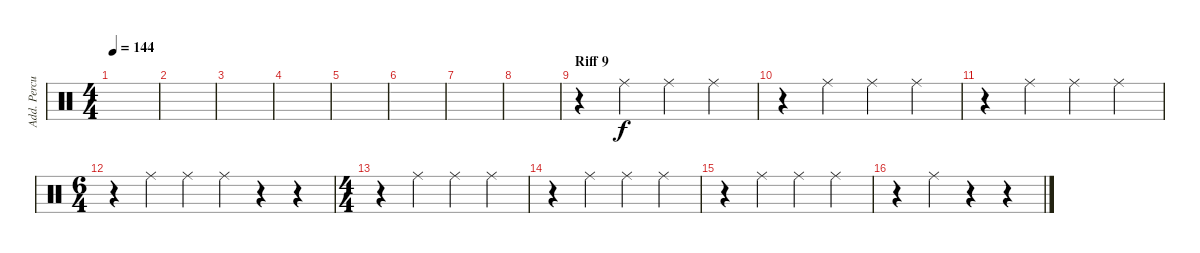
\track ("Add. Percussion" "Add. Percu") {instrument percussion}
\staff {score}
\articulation defaults
\ts (4 4)
\tempo 144
\clef neutral
\ks c
|
|
|
|
|
|
|
|
\section ("" "Riff 9")
r.4 "Ride (middle)".4 "Ride (middle)".4 "Ride (middle)".4 |
r.4 "Ride (middle)".4 "Ride (middle)".4 "Ride (middle)".4 |
r.4 "Ride (middle)".4 "Ride (middle)".4 "Ride (middle)".4 |
\ts (6 4)
r.4 "Ride (middle)".4 "Ride (middle)".4 "Ride (middle)".4 r.4 r.4 |
\ts (4 4)
r.4 "Ride (middle)".4 "Ride (middle)".4 "Ride (middle)".4 |
r.4 "Ride (middle)".4 "Ride (middle)".4 "Ride (middle)".4 |
r.4 "Ride (middle)".4 "Ride (middle)".4 "Ride (middle)".4 |
r.4 "Ride (middle)".4 r.4 r.4
